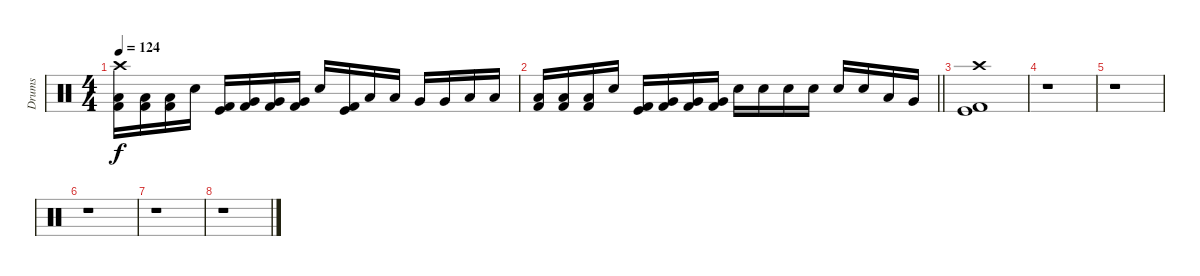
\track ("Drums" "Drums") {instrument percussion}
\staff {score}
\articulation defaults
\ts (4 4)
\tempo 124
\clef neutral
\ks c
("Crash high (hit)" "Kick (hit) 2" "Low Tom (hit)").16{dy f} ("Kick (hit) 2" "Low Tom (hit)").16 ("Kick (hit) 2" "Low Tom (hit)").16 "Electric Snare (hit)".16 ("Kick (hit)" "Kick (hit) 2").16 ("Kick (hit) 2" "Very Low Tom (hit)").16 ("Kick (hit) 2" "Very Low Tom (hit)").16 ("Kick (hit) 2" "Very Low Tom (hit)").16 "Electric Snare (hit)".16 ("Kick (hit)" "Kick (hit) 2").16 "Low Tom (hit)".16 "Low Tom (hit)".16 "Very Low Tom (hit)".16 "Very Low Tom (hit)".16 "Low Floor Tom (hit)".16 "Low Floor Tom (hit)".16 |
\barLineRight lightlight
("Kick (hit) 2" "Low Tom (hit)").16 ("Kick (hit) 2" "Low Tom (hit)").16 ("Kick (hit) 2" "Low Tom (hit)").16 "Electric Snare (hit)".16 ("Kick (hit)" "Kick (hit) 2").16 ("Kick (hit) 2" "Very Low Tom (hit)").16 ("Kick (hit) 2" "Very Low Tom (hit)").16 ("Kick (hit) 2" "Very Low Tom (hit)").16 "Electric Snare (hit)".16 "Electric Snare (hit)".16 "Electric Snare (hit)".16 "Electric Snare (hit)".16 "Electric Snare (hit)".16 "Electric Snare (hit)".16 "Low Tom (hit)".16 "Very Low Tom (hit)".16 |
\section ("" "")
("Crash high (hit)" "Kick (hit)" "Kick (hit) 2").1 |
r.1 |
r.1{volume 0} |
r.1 |
r.1 |
r.1
